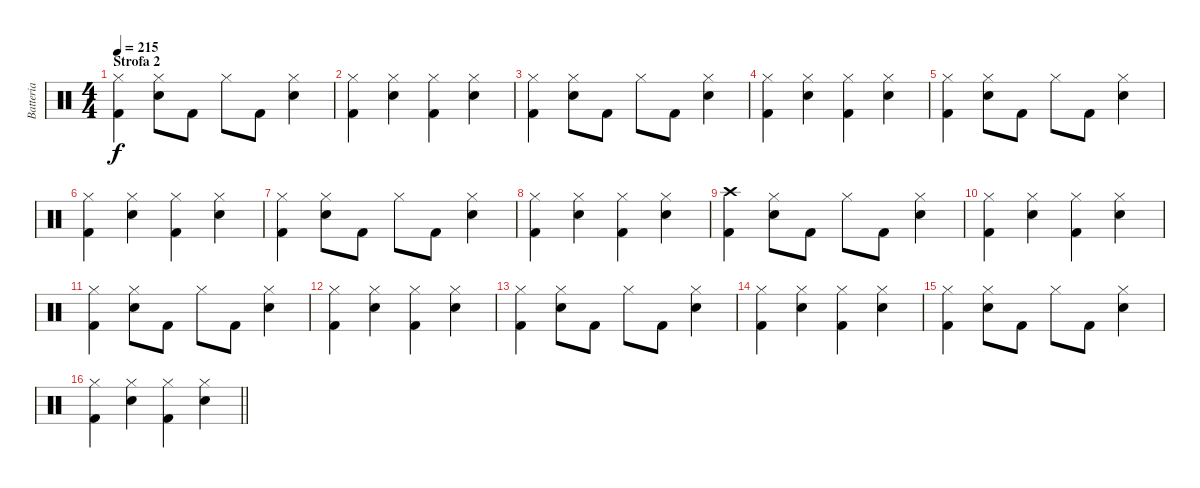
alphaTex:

\track ("Batteria" "Batteria") {instrument percussion}
\staff {score}
\articulation defaults
\ts (4 4)
\section ("" "Strofa 2")
\tempo 215
\clef neutral
\ks c
("Hi-Hat (closed)" "Kick (hit) 2").4{dy f} ("Hi-Hat (closed)" "Electric Snare (hit)").8 "Kick (hit) 2".8 "Hi-Hat (closed)".8 "Kick (hit) 2".8 ("Hi-Hat (closed)" "Electric Snare (hit)").4 |
("Hi-Hat (closed)" "Kick (hit) 2").4 ("Hi-Hat (closed)" "Electric Snare (hit)").4 ("Hi-Hat (closed)" "Kick (hit) 2").4 ("Hi-Hat (closed)" "Electric Snare (hit)").4 |
("Hi-Hat (closed)" "Kick (hit) 2").4 ("Hi-Hat (closed)" "Electric Snare (hit)").8 "Kick (hit) 2".8 "Hi-Hat (closed)".8 "Kick (hit) 2".8 ("Hi-Hat (closed)" "Electric Snare (hit)").4 |
("Hi-Hat (closed)" "Kick (hit) 2").4 ("Hi-Hat (closed)" "Electric Snare (hit)").4 ("Hi-Hat (closed)" "Kick (hit) 2").4 ("Hi-Hat (closed)" "Electric Snare (hit)").4 |
("Hi-Hat (closed)" "Kick (hit) 2").4 ("Hi-Hat (closed)" "Electric Snare (hit)").8 "Kick (hit) 2".8 "Hi-Hat (closed)".8 "Kick (hit) 2".8 ("Hi-Hat (closed)" "Electric Snare (hit)").4 |
("Hi-Hat (closed)" "Kick (hit) 2").4 ("Hi-Hat (closed)" "Electric Snare (hit)").4 ("Hi-Hat (closed)" "Kick (hit) 2").4 ("Hi-Hat (closed)" "Electric Snare (hit)").4 |
("Hi-Hat (closed)" "Kick (hit) 2").4 ("Hi-Hat (closed)" "Electric Snare (hit)").8 "Kick (hit) 2".8 "Hi-Hat (closed)".8 "Kick (hit) 2".8 ("Hi-Hat (closed)" "Electric Snare (hit)").4 |
("Hi-Hat (closed)" "Kick (hit) 2").4 ("Hi-Hat (closed)" "Electric Snare (hit)").4 ("Hi-Hat (closed)" "Kick (hit) 2").4 ("Hi-Hat (closed)" "Electric Snare (hit)").4 |
("Crash high (hit)" "Kick (hit) 2").4 ("Hi-Hat (closed)" "Electric Snare (hit)").8 "Kick (hit) 2".8 "Hi-Hat (closed)".8 "Kick (hit) 2".8 ("Hi-Hat (closed)" "Electric Snare (hit)").4 |
("Hi-Hat (closed)" "Kick (hit) 2").4 ("Hi-Hat (closed)" "Electric Snare (hit)").4 ("Hi-Hat (closed)" "Kick (hit) 2").4 ("Hi-Hat (closed)" "Electric Snare (hit)").4 |
("Hi-Hat (closed)" "Kick (hit) 2").4 ("Hi-Hat (closed)" "Electric Snare (hit)").8 "Kick (hit) 2".8 "Hi-Hat (closed)".8 "Kick (hit) 2".8 ("Hi-Hat (closed)" "Electric Snare (hit)").4 |
("Hi-Hat (closed)" "Kick (hit) 2").4 ("Hi-Hat (closed)" "Electric Snare (hit)").4 ("Hi-Hat (closed)" "Kick (hit) 2").4 ("Hi-Hat (closed)" "Electric Snare (hit)").4 |
("Hi-Hat (closed)" "Kick (hit) 2").4 ("Hi-Hat (closed)" "Electric Snare (hit)").8 "Kick (hit) 2".8 "Hi-Hat (closed)".8 "Kick (hit) 2".8 ("Hi-Hat (closed)" "Electric Snare (hit)").4 |
("Hi-Hat (closed)" "Kick (hit) 2").4 ("Hi-Hat (closed)" "Electric Snare (hit)").4 ("Hi-Hat (closed)" "Kick (hit) 2").4 ("Hi-Hat (closed)" "Electric Snare (hit)").4 |
("Hi-Hat (closed)" "Kick (hit) 2").4 ("Hi-Hat (closed)" "Electric Snare (hit)").8 "Kick (hit) 2".8 "Hi-Hat (closed)".8 "Kick (hit) 2".8 ("Hi-Hat (closed)" "Electric Snare (hit)").4 |
\barLineRight lightlight
("Hi-Hat (closed)" "Kick (hit) 2").4 ("Hi-Hat (closed)" "Electric Snare (hit)").4 ("Hi-Hat (closed)" "Kick (hit) 2").4 ("Hi-Hat (closed)" "Electric Snare (hit)").4
